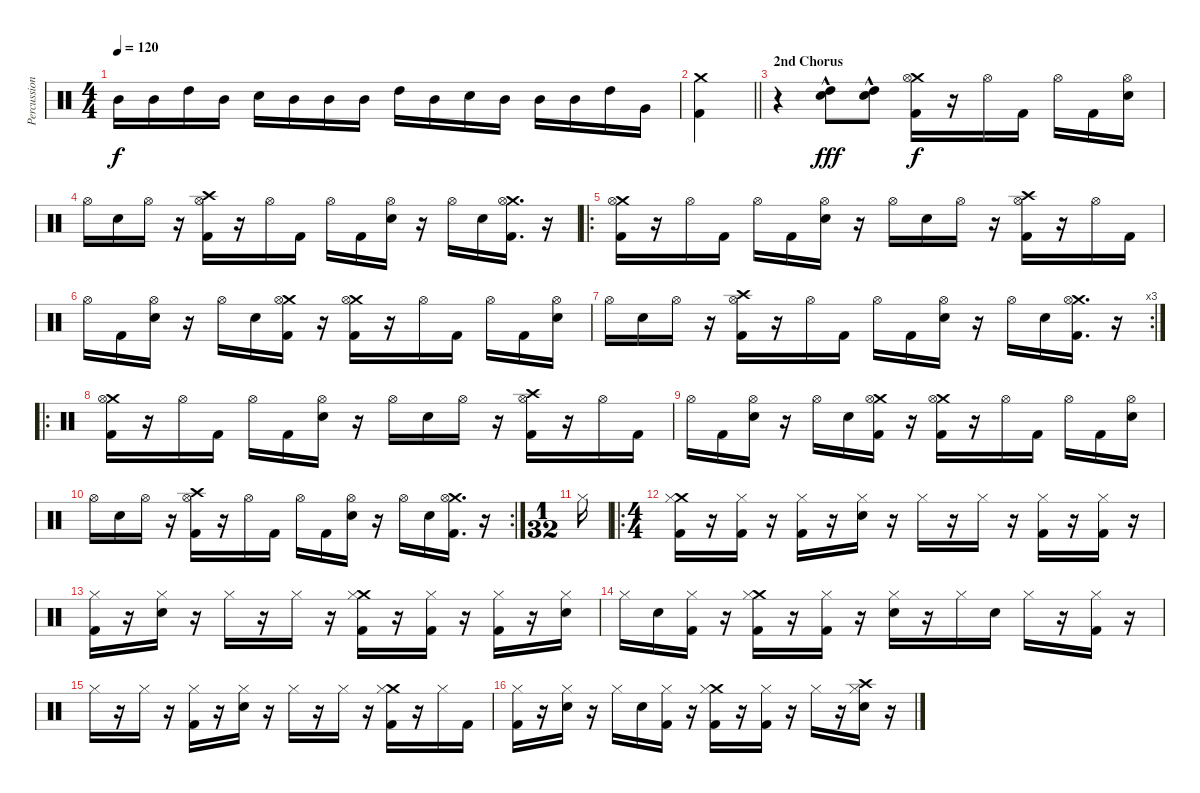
\track ("Percussion" "Percussion") {instrument percussion}
\staff {score}
\articulation defaults
\ts (4 4)
\tempo 120
\clef neutral
\ks c "Mid Tom (hit)".16{dy f} "Mid Tom (hit)".16 "High Tom (hit)".16 "Mid Tom (hit)".16 "Electric Snare (hit)".16 "Mid Tom (hit)".16 "Mid Tom (hit)".16 "Mid Tom (hit)".16 "High Tom (hit)".16 "Mid Tom (hit)".16 "Electric Snare (hit)".16 "Mid Tom (hit)".16 "Mid Tom (hit)".16 "Mid Tom (hit)".16 "High Tom (hit)".16 "Very Low Tom (hit)".16
|
\barLineRight lightlight
("Crash medium (hit)" "Kick (hit) 2").4 |
\section ("" "2nd Chorus")
r.4 ("Electric Snare (hit)" "High Tom (hit)"{hac}).8{dy fff} ("Electric Snare (hit)" "High Tom (hit)"{hac}).8 ("Crash medium (hit)" "Hi-Hat (open)" "Kick (hit) 2").16{dy f} r.16 "Hi-Hat (open)".16 "Kick (hit) 2".16 "Hi-Hat (open)".16 "Kick (hit) 2".16 ("Hi-Hat (open)" "Electric Snare (hit)").16 |
"Hi-Hat (open)".16 "Electric Snare (hit)".16 "Hi-Hat (open)".16 r.16 ("Crash high (hit)" "Hi-Hat (open)" "Kick (hit) 2").16 r.16 "Hi-Hat (open)".16 "Kick (hit) 2".16 "Hi-Hat (open)".16 "Kick (hit) 2".16 ("Hi-Hat (open)" "Electric Snare (hit)").16 r.16 "Hi-Hat (open)".16 "Electric Snare (hit)".16 ("Crash medium (hit)" "Hi-Hat (open)" "Kick (hit) 2").16{d} r.16 |
\ro
("Crash medium (hit)" "Hi-Hat (open)" "Kick (hit) 2").16 r.16 "Hi-Hat (open)".16 "Kick (hit) 2".16 "Hi-Hat (open)".16 "Kick (hit) 2".16 ("Hi-Hat (open)" "Electric Snare (hit)").16 r.16 "Hi-Hat (open)".16 "Electric Snare (hit)".16 "Hi-Hat (open)".16 r.16 ("Crash high (hit)" "Hi-Hat (open)" "Kick (hit) 2").16 r.16 "Hi-Hat (open)".16 "Kick (hit) 2".16 |
"Hi-Hat (open)".16 "Kick (hit) 2".16 ("Hi-Hat (open)" "Electric Snare (hit)").16 r.16 "Hi-Hat (open)".16 "Electric Snare (hit)".16 ("Crash medium (hit)" "Hi-Hat (open)" "Kick (hit) 2").16 r.16 ("Crash medium (hit)" "Hi-Hat (open)" "Kick (hit) 2").16 r.16 "Hi-Hat (open)".16 "Kick (hit) 2".16 "Hi-Hat (open)".16 "Kick (hit) 2".16 ("Hi-Hat (open)" "Electric Snare (hit)").16 |
\rc 3 "Hi-Hat (open)".16 "Electric Snare (hit)".16 "Hi-Hat (open)".16
r.16 ("Crash high (hit)" "Hi-Hat (open)" "Kick (hit) 2").16 r.16 "Hi-Hat (open)".16 "Kick (hit) 2".16 "Hi-Hat (open)".16 "Kick (hit) 2".16 ("Hi-Hat (open)" "Electric Snare (hit)").16 r.16 "Hi-Hat (open)".16 "Electric Snare (hit)".16 ("Crash medium (hit)" "Hi-Hat (open)" "Kick (hit) 2").16{d} r.16 |
\ro
("Crash medium (hit)" "Hi-Hat (open)" "Kick (hit) 2").16 r.16 "Hi-Hat (open)".16 "Kick (hit) 2".16 "Hi-Hat (open)".16 "Kick (hit) 2".16 ("Hi-Hat (open)" "Electric Snare (hit)").16 r.16 "Hi-Hat (open)".16 "Electric Snare (hit)".16 "Hi-Hat (open)".16 r.16 ("Crash high (hit)" "Hi-Hat (open)" "Kick (hit) 2").16 r.16 "Hi-Hat (open)".16 "Kick (hit) 2".16 |
"Hi-Hat (open)".16 "Kick (hit) 2".16 ("Hi-Hat (open)" "Electric Snare (hit)").16 r.16 "Hi-Hat (open)".16 "Electric Snare (hit)".16 ("Crash medium (hit)" "Hi-Hat (open)" "Kick (hit) 2").16 r.16 ("Crash medium (hit)" "Hi-Hat (open)" "Kick (hit) 2").16 r.16 "Hi-Hat (open)".16 "Kick (hit) 2".16 "Hi-Hat (open)".16 "Kick (hit) 2".16 ("Hi-Hat (open)" "Electric Snare (hit)").16 |
\rc 2 "Hi-Hat (open)".16 "Electric Snare (hit)".16 "Hi-Hat (open)".16
r.16 ("Crash high (hit)" "Hi-Hat (open)" "Kick (hit) 2").16 r.16 "Hi-Hat (open)".16 "Kick (hit) 2".16 "Hi-Hat (open)".16 "Kick (hit) 2".16 ("Hi-Hat (open)" "Electric Snare (hit)").16 r.16 "Hi-Hat (open)".16 "Electric Snare (hit)".16 ("Crash medium (hit)" "Hi-Hat (open)" "Kick (hit) 2").16{d} r.16 |
\ts (1 32)
"Hi-Hat (closed)".16 |
\ro
\ts (4 4)
("Crash medium (hit)" "Hi-Hat (closed)" "Kick (hit) 2").16 r.16 ("Hi-Hat (closed)" "Kick (hit) 2").16 r.16 ("Hi-Hat (closed)" "Kick (hit) 2").16 r.16 ("Hi-Hat (closed)" "Electric Snare (hit)").16 r.16 "Hi-Hat (closed)".16 r.16 "Hi-Hat (closed)".16 r.16 ("Hi-Hat (closed)" "Kick (hit) 2").16 r.16 ("Hi-Hat (closed)" "Kick (hit) 2").16 r.16 |
("Hi-Hat (closed)" "Kick (hit) 2").16 r.16 ("Hi-Hat (closed)" "Electric Snare (hit)").16 r.16 "Hi-Hat (closed)".16 r.16 "Hi-Hat (closed)".16 r.16 ("Crash medium (hit)" "Hi-Hat (closed)" "Kick (hit) 2").16 r.16 ("Hi-Hat (closed)" "Kick (hit) 2").16 r.16 ("Hi-Hat (closed)" "Kick (hit) 2").16 r.16 ("Hi-Hat (closed)" "Electric Snare (hit)").16 |
"Hi-Hat (closed)".16 "Electric Snare (hit)".16 ("Hi-Hat (closed)" "Kick (hit) 2").16 r.16 ("Crash medium (hit)" "Hi-Hat (closed)" "Kick (hit) 2").16 r.16 ("Hi-Hat (closed)" "Kick (hit) 2").16 r.16 ("Hi-Hat (closed)" "Electric Snare (hit)").16 r.16 "Hi-Hat (closed)".16 "Electric Snare (hit)".16 "Hi-Hat (closed)".16 r.16 ("Hi-Hat (closed)" "Kick (hit) 2").16 r.16 |
"Hi-Hat (closed)".16 r.16 "Hi-Hat (closed)".16 r.16 ("Hi-Hat (closed)" "Kick (hit) 2").16 r.16 ("Hi-Hat (closed)" "Electric Snare (hit)").16 r.16 "Hi-Hat (closed)".16 r.16 "Hi-Hat (closed)".16 r.16 ("Crash medium (hit)" "Hi-Hat (closed)" "Kick (hit) 2").16 r.16 "Hi-Hat (closed)".16 "Kick (hit) 2".16 |
("Hi-Hat (closed)" "Kick (hit) 2").16 r.16 ("Hi-Hat (closed)" "Electric Snare (hit)").16 r.16 "Hi-Hat (closed)".16 "Electric Snare (hit)".16 ("Hi-Hat (closed)" "Kick (hit) 2").16 r.16 ("Crash medium (hit)" "Hi-Hat (closed)" "Kick (hit) 2").16 r.16 ("Hi-Hat (closed)" "Kick (hit) 2").16 r.16 "Hi-Hat (closed)".16 r.16 ("Crash high (hit)" "Hi-Hat (closed)" "Electric Snare (hit)").16 r.16
